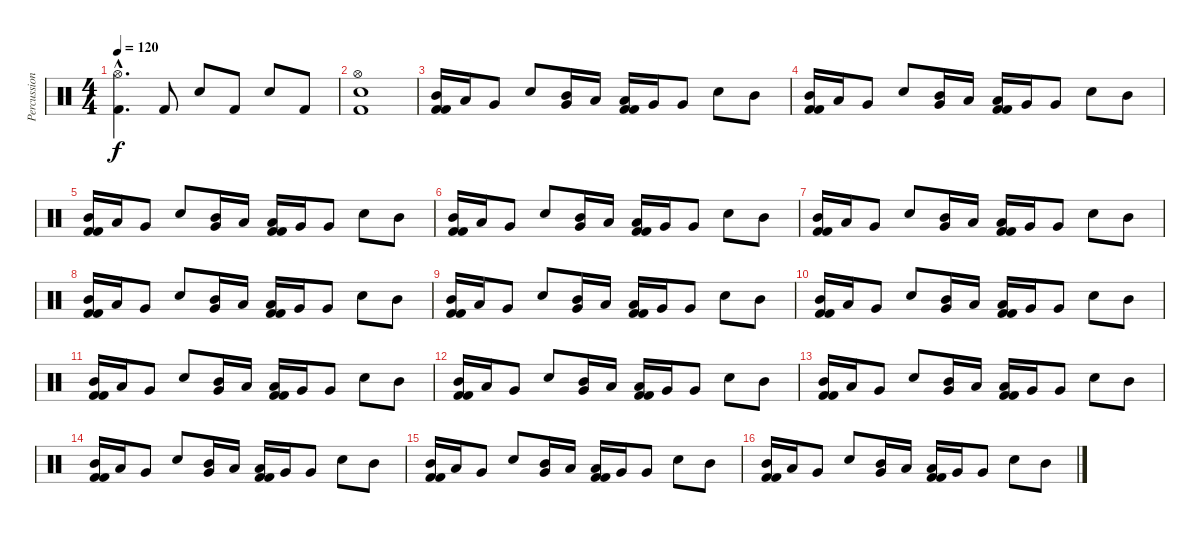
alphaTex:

\track ("Percussions" "Percussion") {instrument percussion}
\staff {score}
\articulation defaults
\ts (4 4)
\tempo 120
\clef neutral
\ks c
("Hi-Hat (open)"{hac} "Kick (hit) 2"{hac}).4{d dy f} "Kick (hit) 2".8 "Snare (hit) 2".8 "Kick (hit) 2".8 "Snare (hit) 2".8 "Kick (hit) 2".8 |
("Hi-Hat (open)" "Snare (hit) 2" "Kick (hit) 2").1 |
("Kick (hit) 2" "Mid Tom (hit)" "Kick (hit) 2").16 "Low Tom (hit)".16 "Very Low Tom (hit)".8 "Snare (hit) 2".8 ("Mid Tom (hit)" "Very Low Tom (hit)").16 "Low Tom (hit)".16 ("Kick (hit) 2" "Low Tom (hit)" "Kick (hit) 2").16 "Very Low Tom (hit)".16 "Very Low Tom (hit)".8 "Snare (hit) 2".8 "Mid Tom (hit)".8 |
("Kick (hit) 2" "Mid Tom (hit)" "Kick (hit) 2").16 "Low Tom (hit)".16 "Very Low Tom (hit)".8 "Snare (hit) 2".8 ("Mid Tom (hit)" "Very Low Tom (hit)").16 "Low Tom (hit)".16 ("Kick (hit) 2" "Low Tom (hit)" "Kick (hit) 2").16 "Very Low Tom (hit)".16 "Very Low Tom (hit)".8 "Snare (hit) 2".8 "Mid Tom (hit)".8 |
("Kick (hit) 2" "Mid Tom (hit)" "Kick (hit) 2").16 "Low Tom (hit)".16 "Very Low Tom (hit)".8 "Snare (hit) 2".8 ("Mid Tom (hit)" "Very Low Tom (hit)").16 "Low Tom (hit)".16 ("Kick (hit) 2" "Low Tom (hit)" "Kick (hit) 2").16 "Very Low Tom (hit)".16 "Very Low Tom (hit)".8 "Snare (hit) 2".8 "Mid Tom (hit)".8 |
("Kick (hit) 2" "Mid Tom (hit)" "Kick (hit) 2").16 "Low Tom (hit)".16 "Very Low Tom (hit)".8 "Snare (hit) 2".8 ("Mid Tom (hit)" "Very Low Tom (hit)").16 "Low Tom (hit)".16 ("Kick (hit) 2" "Low Tom (hit)" "Kick (hit) 2").16 "Very Low Tom (hit)".16 "Very Low Tom (hit)".8 "Snare (hit) 2".8 "Mid Tom (hit)".8 |
("Kick (hit) 2" "Mid Tom (hit)" "Kick (hit) 2").16 "Low Tom (hit)".16 "Very Low Tom (hit)".8 "Snare (hit) 2".8 ("Mid Tom (hit)" "Very Low Tom (hit)").16 "Low Tom (hit)".16 ("Kick (hit) 2" "Low Tom (hit)" "Kick (hit) 2").16 "Very Low Tom (hit)".16 "Very Low Tom (hit)".8 "Snare (hit) 2".8 "Mid Tom (hit)".8 |
("Kick (hit) 2" "Mid Tom (hit)" "Kick (hit) 2").16 "Low Tom (hit)".16 "Very Low Tom (hit)".8 "Snare (hit) 2".8 ("Mid Tom (hit)" "Very Low Tom (hit)").16 "Low Tom (hit)".16 ("Kick (hit) 2" "Low Tom (hit)" "Kick (hit) 2").16 "Very Low Tom (hit)".16 "Very Low Tom (hit)".8 "Snare (hit) 2".8 "Mid Tom (hit)".8 |
("Kick (hit) 2" "Mid Tom (hit)" "Kick (hit) 2").16 "Low Tom (hit)".16 "Very Low Tom (hit)".8 "Snare (hit) 2".8 ("Mid Tom (hit)" "Very Low Tom (hit)").16 "Low Tom (hit)".16 ("Kick (hit) 2" "Low Tom (hit)" "Kick (hit) 2").16 "Very Low Tom (hit)".16 "Very Low Tom (hit)".8 "Snare (hit) 2".8 "Mid Tom (hit)".8 |
("Kick (hit) 2" "Mid Tom (hit)" "Kick (hit) 2").16 "Low Tom (hit)".16 "Very Low Tom (hit)".8 "Snare (hit) 2".8 ("Mid Tom (hit)" "Very Low Tom (hit)").16 "Low Tom (hit)".16 ("Kick (hit) 2" "Low Tom (hit)" "Kick (hit) 2").16 "Very Low Tom (hit)".16 "Very Low Tom (hit)".8 "Snare (hit) 2".8 "Mid Tom (hit)".8 |
("Kick (hit) 2" "Mid Tom (hit)" "Kick (hit) 2").16 "Low Tom (hit)".16 "Very Low Tom (hit)".8 "Snare (hit) 2".8 ("Mid Tom (hit)" "Very Low Tom (hit)").16 "Low Tom (hit)".16 ("Kick (hit) 2" "Low Tom (hit)" "Kick (hit) 2").16 "Very Low Tom (hit)".16 "Very Low Tom (hit)".8 "Snare (hit) 2".8 "Mid Tom (hit)".8 |
("Kick (hit) 2" "Mid Tom (hit)" "Kick (hit) 2").16 "Low Tom (hit)".16 "Very Low Tom (hit)".8 "Snare (hit) 2".8 ("Mid Tom (hit)" "Very Low Tom (hit)").16 "Low Tom (hit)".16 ("Kick (hit) 2" "Low Tom (hit)" "Kick (hit) 2").16 "Very Low Tom (hit)".16 "Very Low Tom (hit)".8 "Snare (hit) 2".8 "Mid Tom (hit)".8 |
("Kick (hit) 2" "Mid Tom (hit)" "Kick (hit) 2").16 "Low Tom (hit)".16 "Very Low Tom (hit)".8 "Snare (hit) 2".8 ("Mid Tom (hit)" "Very Low Tom (hit)").16 "Low Tom (hit)".16 ("Kick (hit) 2" "Low Tom (hit)" "Kick (hit) 2").16 "Very Low Tom (hit)".16 "Very Low Tom (hit)".8 "Snare (hit) 2".8 "Mid Tom (hit)".8 |
("Kick (hit) 2" "Mid Tom (hit)" "Kick (hit) 2").16 "Low Tom (hit)".16 "Very Low Tom (hit)".8 "Snare (hit) 2".8 ("Mid Tom (hit)" "Very Low Tom (hit)").16 "Low Tom (hit)".16 ("Kick (hit) 2" "Low Tom (hit)" "Kick (hit) 2").16 "Very Low Tom (hit)".16 "Very Low Tom (hit)".8 "Snare (hit) 2".8 "Mid Tom (hit)".8 |
("Kick (hit) 2" "Mid Tom (hit)" "Kick (hit) 2").16 "Low Tom (hit)".16 "Very Low Tom (hit)".8 "Snare (hit) 2".8 ("Mid Tom (hit)" "Very Low Tom (hit)").16 "Low Tom (hit)".16 ("Kick (hit) 2" "Low Tom (hit)" "Kick (hit) 2").16 "Very Low Tom (hit)".16 "Very Low Tom (hit)".8 "Snare (hit) 2".8 "Mid Tom (hit)".8 |
("Kick (hit) 2" "Mid Tom (hit)" "Kick (hit) 2").16 "Low Tom (hit)".16 "Very Low Tom (hit)".8 "Snare (hit) 2".8 ("Mid Tom (hit)" "Very Low Tom (hit)").16 "Low Tom (hit)".16 ("Kick (hit) 2" "Low Tom (hit)" "Kick (hit) 2").16 "Very Low Tom (hit)".16 "Very Low Tom (hit)".8 "Snare (hit) 2".8 "Mid Tom (hit)".8
